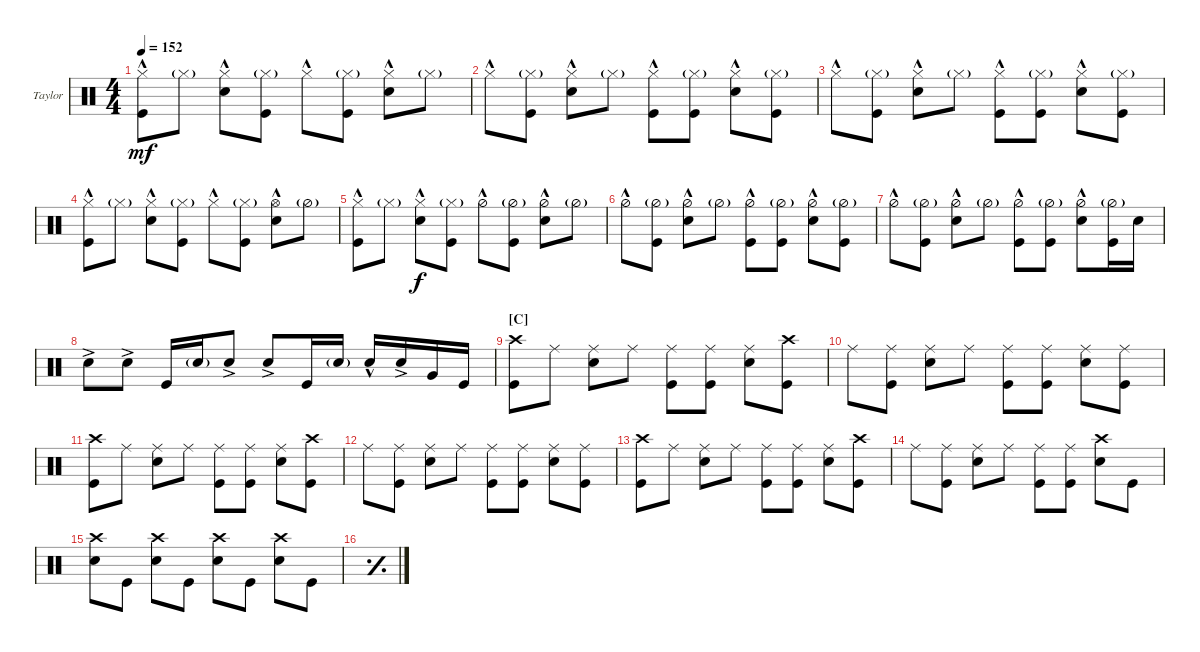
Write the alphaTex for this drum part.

\defaultSystemsLayout 4
\bracketExtendMode nobrackets
\firstSystemTrackNameOrientation horizontal
\otherSystemsTrackNameOrientation horizontal
\track ("Drums (Taylor Hawkins)" "Taylor") {instrument percussion}
\staff {score}
\articulation defaults
\ts (4 4)
\tempo 152
\clef neutral
\ks c
("Kick (hit)" "Hi-Hat (closed)"{hac}).8{dy mf} "Hi-Hat (closed)"{g}.8 ("Snare (hit) 2" "Hi-Hat (closed)"{hac}).8 ("Kick (hit)" "Hi-Hat (closed)"{g}).8 "Hi-Hat (closed)"{hac}.8 ("Hi-Hat (closed)"{g} "Kick (hit)").8 ("Hi-Hat (closed)"{hac} "Snare (hit) 2").8 "Hi-Hat (closed)"{g}.8 |
"Hi-Hat (closed)"{hac}.8 ("Kick (hit)" "Hi-Hat (closed)"{g}).8 ("Snare (hit) 2" "Hi-Hat (closed)"{hac}).8 "Hi-Hat (closed)"{g}.8 ("Kick (hit)" "Hi-Hat (closed)"{hac}).8 ("Kick (hit)" "Hi-Hat (closed)"{g}).8 ("Snare (hit) 2" "Hi-Hat (closed)"{hac}).8 ("Hi-Hat (closed)"{g} "Kick (hit)").8 |
"Hi-Hat (closed)"{hac}.8 ("Hi-Hat (closed)"{g} "Kick (hit)").8 ("Hi-Hat (closed)"{hac} "Snare (hit) 2").8 "Hi-Hat (closed)"{g}.8 ("Hi-Hat (closed)"{hac} "Kick (hit)").8 ("Hi-Hat (closed)"{g} "Kick (hit)").8 ("Hi-Hat (closed)"{hac} "Snare (hit) 2").8 ("Hi-Hat (closed)"{g} "Kick (hit)").8 |
("Hi-Hat (closed)"{hac} "Kick (hit)").8 "Hi-Hat (closed)"{g}.8 ("Hi-Hat (closed)"{hac} "Snare (hit) 2").8 ("Hi-Hat (closed)"{g} "Kick (hit)").8 "Hi-Hat (closed)"{hac}.8 ("Hi-Hat (closed)"{g} "Kick (hit)").8 ("Hi-Hat (open)"{hac} "Snare (hit) 2").8 "Hi-Hat (half)"{g}.8 |
("Kick (hit)" "Hi-Hat (closed)"{hac}).8 "Hi-Hat (closed)"{g}.8 ("Snare (hit) 2" "Hi-Hat (closed)"{hac}).8{dy f} ("Kick (hit)" "Hi-Hat (closed)"{g}).8 "Hi-Hat (half)"{hac}.8 ("Hi-Hat (half)"{g} "Kick (hit)").8 ("Hi-Hat (half)"{hac} "Snare (hit) 2").8 "Hi-Hat (half)"{g}.8 |
"Hi-Hat (half)"{hac}.8 ("Kick (hit)" "Hi-Hat (half)"{g}).8 ("Snare (hit) 2" "Hi-Hat (half)"{hac}).8 "Hi-Hat (half)"{g}.8 ("Kick (hit)" "Hi-Hat (half)"{hac}).8 ("Kick (hit)" "Hi-Hat (half)"{g}).8 ("Snare (hit) 2" "Hi-Hat (half)"{hac}).8 ("Hi-Hat (half)"{g} "Kick (hit)").8 |
"Hi-Hat (half)"{hac}.8 ("Hi-Hat (half)"{g} "Kick (hit)").8 ("Hi-Hat (half)"{hac} "Snare (hit) 2").8 "Hi-Hat (half)"{g}.8 ("Hi-Hat (half)"{hac} "Kick (hit)").8 ("Hi-Hat (half)"{g} "Kick (hit)").8 ("Hi-Hat (half)"{hac} "Snare (hit) 2").8 ("Hi-Hat (half)"{g} "Kick (hit)").16 "Snare (hit) 2".16 |
"Snare (hit) 2"{ac}.8 "Snare (hit) 2"{ac}.8 "Kick (hit)".16 "Snare (hit) 2"{g}.16 "Snare (hit) 2"{ac}.8 "Snare (hit) 2"{ac}.8 "Kick (hit)".16 "Snare (hit) 2"{g}.16 "Snare (hit) 2"{hac}.16 "Snare (hit) 2"{ac}.16 "Very Low Tom (hit)".16 "Kick (hit)".16 |
\section ("C" "")
("Crash high (hit)" "Kick (hit)").8 "Ride (middle)".8 ("Ride (middle)" "Snare (hit) 2").8 "Ride (middle)".8 ("Ride (middle)" "Kick (hit)").8 ("Ride (middle)" "Kick (hit)").8 ("Ride (middle)" "Snare (hit) 2").8 ("Kick (hit)" "Crash high (hit)").8 |
"Ride (middle)".8 ("Ride (middle)" "Kick (hit)").8 ("Ride (middle)" "Snare (hit) 2").8 "Ride (middle)".8 ("Ride (middle)" "Kick (hit)").8 ("Ride (middle)" "Kick (hit)").8 ("Ride (middle)" "Snare (hit) 2").8 ("Ride (middle)" "Kick (hit)").8 |
("Crash high (hit)" "Kick (hit)").8 "Ride (middle)".8 ("Ride (middle)" "Snare (hit) 2").8 "Ride (middle)".8 ("Ride (middle)" "Kick (hit)").8 ("Ride (middle)" "Kick (hit)").8 ("Ride (middle)" "Snare (hit) 2").8 ("Kick (hit)" "Crash high (hit)").8 |
"Ride (middle)".8 ("Ride (middle)" "Kick (hit)").8 ("Ride (middle)" "Snare (hit) 2").8 "Ride (middle)".8 ("Ride (middle)" "Kick (hit)").8 ("Ride (middle)" "Kick (hit)").8 ("Ride (middle)" "Snare (hit) 2").8 ("Ride (middle)" "Kick (hit)").8 |
("Crash high (hit)" "Kick (hit)").8 "Ride (middle)".8 ("Ride (middle)" "Snare (hit) 2").8 "Ride (middle)".8 ("Ride (middle)" "Kick (hit)").8 ("Ride (middle)" "Kick (hit)").8 ("Ride (middle)" "Snare (hit) 2").8 ("Kick (hit)" "Crash high (hit)").8 |
"Ride (middle)".8 ("Ride (middle)" "Kick (hit)").8 ("Ride (middle)" "Snare (hit) 2").8 "Ride (middle)".8 ("Ride (middle)" "Kick (hit)").8 ("Ride (middle)" "Kick (hit)").8 ("Snare (hit) 2" "Crash high (hit)").8 "Kick (hit)".8 |
("Crash high (hit)" "Snare (hit) 2").8 "Kick (hit)".8 ("Crash high (hit)" "Snare (hit) 2").8 "Kick (hit)".8 ("Crash high (hit)" "Snare (hit) 2").8 "Kick (hit)".8 ("Crash high (hit)" "Snare (hit) 2").8 "Kick (hit)".8 |
\simile simple
